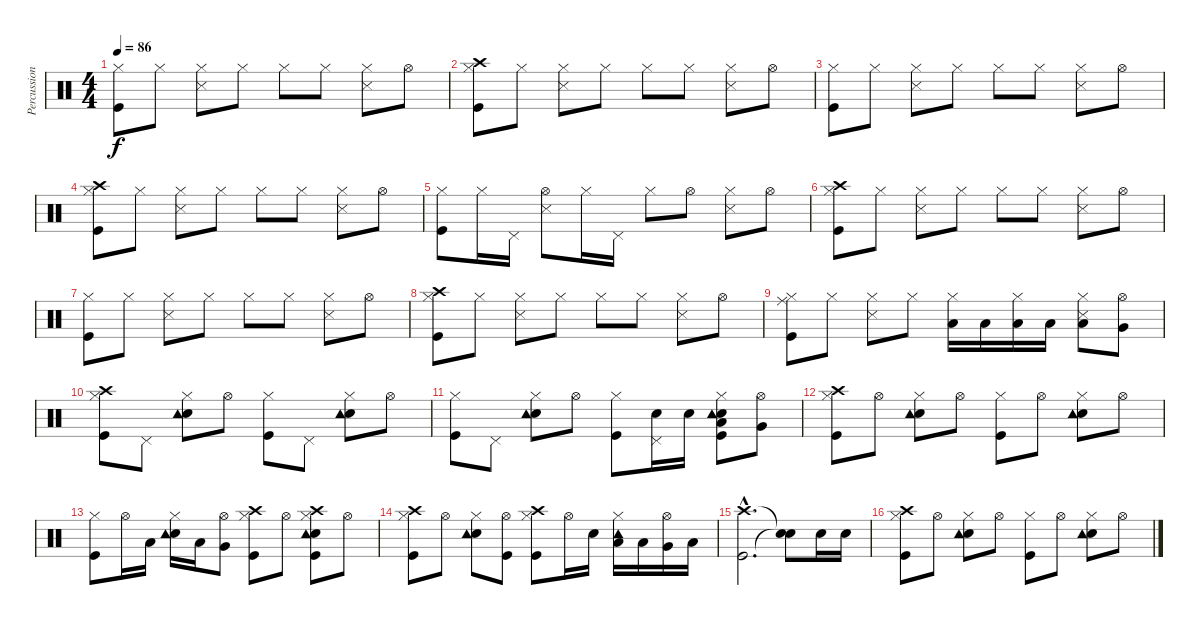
\track ("Percussion" "Percussion") {instrument percussion}
\staff {score}
\articulation defaults
\ts (4 4)
\tempo 86
\clef neutral
\ks c
("Kick (hit)" "Hi-Hat (closed)").8{dy f} "Hi-Hat (closed)".8 ("Hi-Hat (closed)" "Snare (side stick) 3").8 "Hi-Hat (closed)".8 "Hi-Hat (closed)".8 "Hi-Hat (closed)".8 ("Hi-Hat (closed)" "Snare (side stick) 3").8 "Hi-Hat (open)".8 |
("Kick (hit)" "Crash high (hit)" "Hi-Hat (closed)").8 "Hi-Hat (closed)".8 ("Hi-Hat (closed)" "Snare (side stick) 3").8 "Hi-Hat (closed)".8 "Hi-Hat (closed)".8 "Hi-Hat (closed)".8 ("Hi-Hat (closed)" "Snare (side stick) 3").8 "Hi-Hat (open)".8 |
("Kick (hit)" "Hi-Hat (closed)").8 "Hi-Hat (closed)".8 ("Hi-Hat (closed)" "Snare (side stick) 3").8 "Hi-Hat (closed)".8 "Hi-Hat (closed)".8 "Hi-Hat (closed)".8 ("Hi-Hat (closed)" "Snare (side stick) 3").8 "Hi-Hat (open)".8 |
("Kick (hit)" "Crash high (hit)" "Hi-Hat (closed)").8 "Hi-Hat (closed)".8 ("Hi-Hat (closed)" "Snare (side stick) 3").8 "Hi-Hat (closed)".8 "Hi-Hat (closed)".8 "Hi-Hat (closed)".8 ("Hi-Hat (closed)" "Snare (side stick) 3").8 "Hi-Hat (open)".8 |
("Kick (hit)" "Hi-Hat (closed)").8 "Hi-Hat (closed)".16 "Pedal Hi-Hat (hit)".16 ("Hi-Hat (open)" "Snare (side stick) 3").8 "Hi-Hat (closed)".16 "Pedal Hi-Hat (hit)".16 "Hi-Hat (closed)".8 "Hi-Hat (open)".8 ("Hi-Hat (closed)" "Snare (side stick) 3").8 "Hi-Hat (open)".8 |
("Kick (hit)" "Crash high (hit)" "Hi-Hat (closed)").8 "Hi-Hat (closed)".8 ("Hi-Hat (closed)" "Snare (side stick) 3").8 "Hi-Hat (closed)".8 "Hi-Hat (closed)".8 "Hi-Hat (closed)".8 ("Hi-Hat (closed)" "Snare (side stick) 3").8 "Hi-Hat (open)".8 |
("Kick (hit)" "Hi-Hat (closed)").8 "Hi-Hat (closed)".8 ("Hi-Hat (closed)" "Snare (side stick) 3").8 "Hi-Hat (closed)".8 "Hi-Hat (closed)".8 "Hi-Hat (closed)".8 ("Hi-Hat (closed)" "Snare (side stick) 3").8 "Hi-Hat (open)".8 |
("Kick (hit)" "Crash high (hit)" "Hi-Hat (closed)").8 "Hi-Hat (closed)".8 ("Hi-Hat (closed)" "Snare (side stick) 3").8 "Hi-Hat (closed)".8 "Hi-Hat (closed)".8 "Hi-Hat (closed)".8 ("Hi-Hat (closed)" "Snare (side stick) 3").8 "Hi-Hat (open)".8 |
("Kick (hit)" "Hi-Hat (closed)" "Ride (middle)").8 "Hi-Hat (closed)".8 ("Hi-Hat (closed)" "Snare (side stick) 3").8 "Hi-Hat (closed)".8 ("Hi-Hat (closed)" "Low Tom (hit)").16 "Low Tom (hit)".16 ("Hi-Hat (closed)" "Low Tom (hit)").16 "Low Tom (hit)".16 ("Low Tom (hit)" "Hi-Hat (closed)" "Snare (side stick) 3").8 ("Very Low Tom (hit)" "Hi-Hat (open)").8 |
("Kick (hit)" "Crash high (hit)" "Hi-Hat (closed)").8 "Pedal Hi-Hat (hit)".8 ("Electric Snare (hit)" "Tambourine (hit)" "Hi-Hat (closed)").8 "Hi-Hat (open)".8 ("Kick (hit)" "Hi-Hat (closed)").8 "Pedal Hi-Hat (hit)".8 ("Electric Snare (hit)" "Hi-Hat (closed)" "Tambourine (hit)").8 "Hi-Hat (open)".8 |
("Kick (hit)" "Hi-Hat (closed)").8 "Pedal Hi-Hat (hit)".8 ("Electric Snare (hit)" "Hi-Hat (closed)" "Tambourine (hit)").8 "Hi-Hat (open)".8 ("Hi-Hat (closed)" "Kick (hit)").8 ("Electric Snare (hit)" "Pedal Hi-Hat (hit)").16 "Electric Snare (hit)".16 ("Kick (hit)" "Electric Snare (hit)" "Low Tom (hit)" "Tambourine (hit)" "Hi-Hat (closed)").8 ("Very Low Tom (hit)" "Hi-Hat (open)").8 |
("Kick (hit)" "Crash high (hit)" "Hi-Hat (closed)").8 "Hi-Hat (open)".8 ("Electric Snare (hit)" "Tambourine (hit)" "Hi-Hat (closed)").8 "Hi-Hat (open)".8 ("Kick (hit)" "Hi-Hat (closed)").8 "Hi-Hat (open)".8 ("Electric Snare (hit)" "Hi-Hat (closed)" "Tambourine (hit)").8 "Hi-Hat (open)".8 |
("Kick (hit)" "Hi-Hat (closed)").8 "Hi-Hat (open)".16 "Low Tom (hit)".16 ("Electric Snare (hit)" "Hi-Hat (closed)" "Tambourine (hit)").16 "Low Tom (hit)".16 ("Very Low Tom (hit)" "Hi-Hat (open)").8 ("Hi-Hat (closed)" "Kick (hit)" "Crash high (hit)").8 "Hi-Hat (open)".8 ("Kick (hit)" "Electric Snare (hit)" "Crash high (hit)" "Tambourine (hit)" "Hi-Hat (closed)").8 "Hi-Hat (open)".8 |
("Kick (hit)" "Crash high (hit)" "Hi-Hat (closed)").8 "Hi-Hat (open)".8 ("Electric Snare (hit)" "Tambourine (hit)" "Hi-Hat (closed)").8 ("Kick (hit)" "Hi-Hat (open)").8 ("Kick (hit)" "Hi-Hat (closed)" "Crash high (hit)").8 "Hi-Hat (open)".16 "Electric Snare (hit)".16 ("Hi-Hat (closed)" "Low Tom (hit)" "Tambourine (hit)").16 "Low Tom (hit)".16 ("Very Low Tom (hit)" "Hi-Hat (open)").16 "Low Floor Tom (hit)".16 |
("Kick (hit)"{hac} "Crash high (hit)"{hac}).2{d} ("Snare (hit)"{t} "Snare (hit)"{t}).8 "Electric Snare (hit)".16 "Electric Snare (hit)".16 |
("Kick (hit)" "Crash high (hit)" "Hi-Hat (closed)").8 "Hi-Hat (open)".8 ("Electric Snare (hit)" "Tambourine (hit)" "Hi-Hat (closed)").8 "Hi-Hat (open)".8 ("Kick (hit)" "Hi-Hat (closed)").8 "Hi-Hat (open)".8 ("Electric Snare (hit)" "Hi-Hat (closed)" "Tambourine (hit)").8 "Hi-Hat (open)".8
